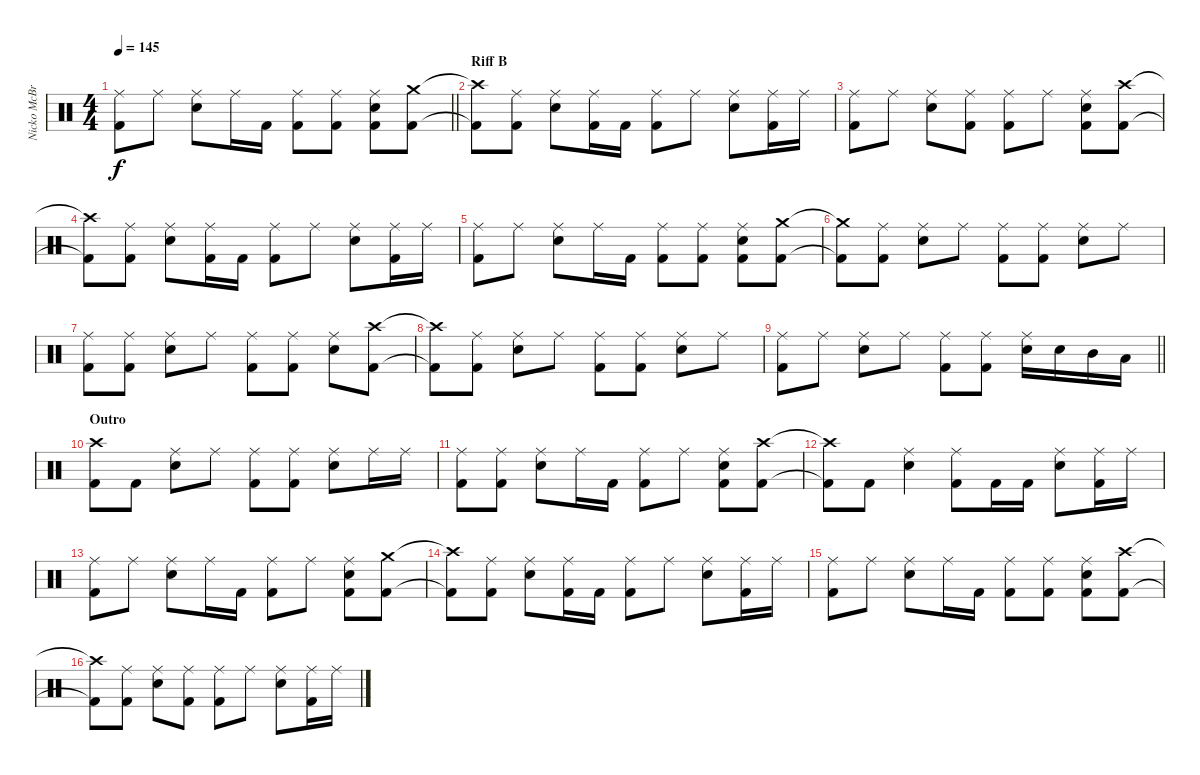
\track ("Nicko McBrain" "Nicko McBr") {instrument percussion}
\staff {score}
\articulation defaults
\ts (4 4)
\tempo 145
\clef neutral
\barLineRight lightlight
\ks c
("Ride (middle)" "Kick (hit) 2").8{dy f} "Ride (middle)".8 ("Ride (middle)" "Snare (hit) 2").8 "Ride (middle)".16 "Kick (hit) 2".16 ("Ride (middle)" "Kick (hit) 2").8 ("Ride (middle)" "Kick (hit) 2").8 ("Ride (middle)" "Snare (hit) 2" "Kick (hit) 2").8 ("Crash medium (hit)" "Kick (hit) 2").8 |
\section ("" "Riff B")
("Crash high (hit)"{t} "Kick (hit) 2"{t}).8 ("Ride (middle)" "Kick (hit) 2").8 ("Ride (middle)" "Snare (hit) 2").8 ("Ride (middle)" "Kick (hit) 2").16 "Kick (hit) 2".16 ("Ride (middle)" "Kick (hit) 2").8 "Ride (middle)".8 ("Ride (middle)" "Snare (hit) 2").8 ("Ride (middle)" "Kick (hit) 2").16 "Ride (middle)".16 |
("Ride (middle)" "Kick (hit) 2").8 "Ride (middle)".8 ("Ride (middle)" "Snare (hit) 2").8 ("Ride (middle)" "Kick (hit) 2").8 ("Ride (middle)" "Kick (hit) 2").8 "Ride (middle)".8 ("Ride (middle)" "Snare (hit) 2" "Kick (hit) 2").8 ("Crash high (hit)" "Kick (hit) 2").8 |
("Crash high (hit)"{t} "Kick (hit) 2"{t}).8 ("Ride (middle)" "Kick (hit) 2").8 ("Ride (middle)" "Snare (hit) 2").8 ("Ride (middle)" "Kick (hit) 2").16 "Kick (hit) 2".16 ("Ride (middle)" "Kick (hit) 2").8 "Ride (middle)".8 ("Ride (middle)" "Snare (hit) 2").8 ("Ride (middle)" "Kick (hit) 2").16 "Ride (middle)".16 |
("Ride (middle)" "Kick (hit) 2").8 "Ride (middle)".8 ("Ride (middle)" "Snare (hit) 2").8 "Ride (middle)".16 "Kick (hit) 2".16 ("Ride (middle)" "Kick (hit) 2").8 ("Ride (middle)" "Kick (hit) 2").8 ("Ride (middle)" "Snare (hit) 2" "Kick (hit) 2").8 ("Crash medium (hit)" "Kick (hit) 2").8 |
("Crash medium (hit)"{t} "Kick (hit) 2"{t}).8 ("Ride (middle)" "Kick (hit) 2").8 ("Ride (middle)" "Snare (hit) 2").8 "Ride (middle)".8 ("Ride (middle)" "Kick (hit) 2").8 ("Ride (middle)" "Kick (hit) 2").8 ("Ride (middle)" "Snare (hit) 2").8 "Ride (middle)".8 |
("Ride (middle)" "Kick (hit) 2").8 ("Ride (middle)" "Kick (hit) 2").8 ("Ride (middle)" "Snare (hit) 2").8 "Ride (middle)".8 ("Ride (middle)" "Kick (hit) 2").8 ("Ride (middle)" "Kick (hit) 2").8 ("Ride (middle)" "Snare (hit) 2").8 ("Crash high (hit)" "Kick (hit) 2").8 |
("Crash high (hit)"{t} "Kick (hit) 2"{t}).8 ("Ride (middle)" "Kick (hit) 2").8 ("Ride (middle)" "Snare (hit) 2").8 "Ride (middle)".8 ("Ride (middle)" "Kick (hit) 2").8 ("Ride (middle)" "Kick (hit) 2").8 ("Ride (middle)" "Snare (hit) 2").8 "Ride (middle)".8 |
\barLineRight lightlight
("Ride (middle)" "Kick (hit) 2").8 "Ride (middle)".8 ("Ride (middle)" "Snare (hit) 2").8 "Ride (middle)".8 ("Ride (middle)" "Kick (hit) 2").8 ("Ride (middle)" "Kick (hit) 2").8 ("Ride (middle)" "Snare (hit) 2").16 "Snare (hit) 2".16 "Mid Tom (hit)".16 "Low Tom (hit)".16 |
\section ("" "Outro")
("Crash high (hit)" "Kick (hit) 2").8 "Kick (hit) 2".8 ("Ride (middle)" "Snare (hit) 2").8 "Ride (middle)".8 ("Ride (middle)" "Kick (hit) 2").8 ("Ride (middle)" "Kick (hit) 2").8 ("Ride (middle)" "Snare (hit) 2").8 "Ride (middle)".16 "Ride (middle)".16 |
("Ride (middle)" "Kick (hit) 2").8 ("Ride (middle)" "Kick (hit) 2").8 ("Ride (middle)" "Snare (hit) 2").8 "Ride (middle)".16 "Kick (hit) 2".16 ("Ride (middle)" "Kick (hit) 2").8 "Ride (middle)".8 ("Ride (middle)" "Snare (hit) 2" "Kick (hit) 2").8 ("Crash high (hit)" "Kick (hit) 2").8 |
("Crash high (hit)"{t} "Kick (hit) 2"{t}).8 "Kick (hit) 2".8 ("Ride (middle)" "Snare (hit) 2").4 ("Ride (middle)" "Kick (hit) 2").8 "Kick (hit) 2".16 "Kick (hit) 2".16 ("Ride (middle)" "Snare (hit) 2").8 ("Ride (middle)" "Kick (hit) 2").16 "Ride (middle)".16 |
("Ride (middle)" "Kick (hit) 2").8 "Ride (middle)".8 ("Ride (middle)" "Snare (hit) 2").8 "Ride (middle)".16 "Kick (hit) 2".16 ("Ride (middle)" "Kick (hit) 2").8 "Ride (middle)".8 ("Ride (middle)" "Snare (hit) 2" "Kick (hit) 2").8 ("Crash medium (hit)" "Kick (hit) 2").8 |
("Crash high (hit)"{t} "Kick (hit) 2"{t}).8 ("Ride (middle)" "Kick (hit) 2").8 ("Ride (middle)" "Snare (hit) 2").8 ("Ride (middle)" "Kick (hit) 2").16 "Kick (hit) 2".16 ("Ride (middle)" "Kick (hit) 2").8 "Ride (middle)".8 ("Ride (middle)" "Snare (hit) 2").8 ("Ride (middle)" "Kick (hit) 2").16 "Ride (middle)".16 |
("Ride (middle)" "Kick (hit) 2").8 "Ride (middle)".8 ("Ride (middle)" "Snare (hit) 2").8 "Ride (middle)".16 "Kick (hit) 2".16 ("Ride (middle)" "Kick (hit) 2").8 ("Ride (middle)" "Kick (hit) 2").8 ("Ride (middle)" "Snare (hit) 2" "Kick (hit) 2").8 ("Crash high (hit)" "Kick (hit) 2").8 |
("Crash high (hit)"{t} "Kick (hit) 2"{t}).8 ("Ride (middle)" "Kick (hit) 2").8 ("Ride (middle)" "Snare (hit) 2").8 ("Ride (middle)" "Kick (hit) 2").8 ("Ride (middle)" "Kick (hit) 2").8 "Ride (middle)".8 ("Ride (middle)" "Snare (hit) 2").8 ("Ride (middle)" "Kick (hit) 2").16 "Ride (middle)".16
